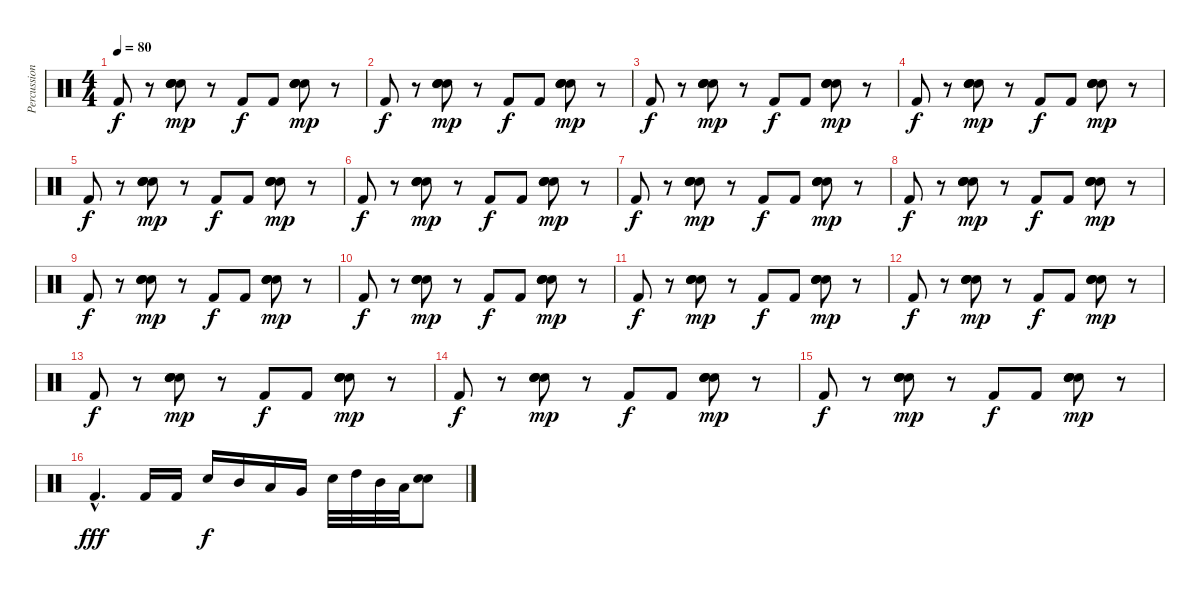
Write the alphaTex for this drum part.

\track ("Percussion" "Percussion") {instrument percussion}
\staff {score}
\articulation defaults
\ts (4 4)
\tempo 80
\clef neutral
\ks c "Kick (hit) 2".8{dy f}
r.8 ("Snare (hit) 2" "Snare (hit) 2" "Snare (hit) 2" "Snare (hit) 2").8{bd 60 dy mp} r.8 "Kick (hit) 2".8{dy f} "Kick (hit) 2".8 ("Snare (hit) 2" "Snare (hit) 2" "Snare (hit) 2" "Snare (hit) 2").8{bd 60 dy mp} r.8 |
"Kick (hit) 2".8{dy f} r.8 ("Snare (hit) 2" "Snare (hit) 2" "Snare (hit) 2" "Snare (hit) 2").8{bd 60 dy mp} r.8 "Kick (hit) 2".8{dy f} "Kick (hit) 2".8 ("Snare (hit) 2" "Snare (hit) 2" "Snare (hit) 2" "Snare (hit) 2").8{bd 60 dy mp} r.8 |
"Kick (hit) 2".8{dy f} r.8 ("Snare (hit) 2" "Snare (hit) 2" "Snare (hit) 2" "Snare (hit) 2").8{bd 60 dy mp} r.8 "Kick (hit) 2".8{dy f} "Kick (hit) 2".8 ("Snare (hit) 2" "Snare (hit) 2" "Snare (hit) 2" "Snare (hit) 2").8{bd 60 dy mp} r.8 |
"Kick (hit) 2".8{dy f} r.8 ("Snare (hit) 2" "Snare (hit) 2" "Snare (hit) 2" "Snare (hit) 2").8{bd 60 dy mp} r.8 "Kick (hit) 2".8{dy f} "Kick (hit) 2".8 ("Snare (hit) 2" "Snare (hit) 2" "Snare (hit) 2" "Snare (hit) 2").8{bd 60 dy mp} r.8 |
"Kick (hit) 2".8{dy f} r.8 ("Snare (hit) 2" "Snare (hit) 2" "Snare (hit) 2" "Snare (hit) 2").8{bd 60 dy mp} r.8 "Kick (hit) 2".8{dy f} "Kick (hit) 2".8 ("Snare (hit) 2" "Snare (hit) 2" "Snare (hit) 2" "Snare (hit) 2").8{bd 60 dy mp} r.8 |
"Kick (hit) 2".8{dy f} r.8 ("Snare (hit) 2" "Snare (hit) 2" "Snare (hit) 2" "Snare (hit) 2").8{bd 60 dy mp} r.8 "Kick (hit) 2".8{dy f} "Kick (hit) 2".8 ("Snare (hit) 2" "Snare (hit) 2" "Snare (hit) 2" "Snare (hit) 2").8{bd 60 dy mp} r.8 |
"Kick (hit) 2".8{dy f} r.8 ("Snare (hit) 2" "Snare (hit) 2" "Snare (hit) 2" "Snare (hit) 2").8{bd 60 dy mp} r.8 "Kick (hit) 2".8{dy f} "Kick (hit) 2".8 ("Snare (hit) 2" "Snare (hit) 2" "Snare (hit) 2" "Snare (hit) 2").8{bd 60 dy mp} r.8 |
"Kick (hit) 2".8{dy f} r.8 ("Snare (hit) 2" "Snare (hit) 2" "Snare (hit) 2" "Snare (hit) 2").8{bd 60 dy mp} r.8 "Kick (hit) 2".8{dy f} "Kick (hit) 2".8 ("Snare (hit) 2" "Snare (hit) 2" "Snare (hit) 2" "Snare (hit) 2").8{bd 60 dy mp} r.8 |
"Kick (hit) 2".8{dy f} r.8 ("Snare (hit) 2" "Snare (hit) 2" "Snare (hit) 2" "Snare (hit) 2").8{bd 60 dy mp} r.8 "Kick (hit) 2".8{dy f} "Kick (hit) 2".8 ("Snare (hit) 2" "Snare (hit) 2" "Snare (hit) 2" "Snare (hit) 2").8{bd 60 dy mp} r.8 |
"Kick (hit) 2".8{dy f} r.8 ("Snare (hit) 2" "Snare (hit) 2" "Snare (hit) 2" "Snare (hit) 2").8{bd 60 dy mp} r.8 "Kick (hit) 2".8{dy f} "Kick (hit) 2".8 ("Snare (hit) 2" "Snare (hit) 2" "Snare (hit) 2" "Snare (hit) 2").8{bd 60 dy mp} r.8 |
"Kick (hit) 2".8{dy f} r.8 ("Snare (hit) 2" "Snare (hit) 2" "Snare (hit) 2" "Snare (hit) 2").8{bd 60 dy mp} r.8 "Kick (hit) 2".8{dy f} "Kick (hit) 2".8 ("Snare (hit) 2" "Snare (hit) 2" "Snare (hit) 2" "Snare (hit) 2").8{bd 60 dy mp} r.8 |
"Kick (hit) 2".8{dy f} r.8 ("Snare (hit) 2" "Snare (hit) 2" "Snare (hit) 2" "Snare (hit) 2").8{bd 60 dy mp} r.8 "Kick (hit) 2".8{dy f} "Kick (hit) 2".8 ("Snare (hit) 2" "Snare (hit) 2" "Snare (hit) 2" "Snare (hit) 2").8{bd 60 dy mp} r.8 |
"Kick (hit) 2".8{dy f} r.8 ("Snare (hit) 2" "Snare (hit) 2" "Snare (hit) 2" "Snare (hit) 2").8{bd 60 dy mp} r.8 "Kick (hit) 2".8{dy f} "Kick (hit) 2".8 ("Snare (hit) 2" "Snare (hit) 2" "Snare (hit) 2" "Snare (hit) 2").8{bd 60 dy mp} r.8 |
"Kick (hit) 2".8{dy f} r.8 ("Snare (hit) 2" "Snare (hit) 2" "Snare (hit) 2" "Snare (hit) 2").8{bd 60 dy mp} r.8 "Kick (hit) 2".8{dy f} "Kick (hit) 2".8 ("Snare (hit) 2" "Snare (hit) 2" "Snare (hit) 2" "Snare (hit) 2").8{bd 60 dy mp} r.8 |
"Kick (hit) 2".8{dy f} r.8 ("Snare (hit) 2" "Snare (hit) 2" "Snare (hit) 2" "Snare (hit) 2").8{bd 60 dy mp} r.8 "Kick (hit) 2".8{dy f} "Kick (hit) 2".8 ("Snare (hit) 2" "Snare (hit) 2" "Snare (hit) 2" "Snare (hit) 2").8{bd 60 dy mp} r.8 |
"Kick (hit) 2"{hac}.4{d dy fff} "Kick (hit) 2".16 "Kick (hit) 2".16 "Snare (hit) 2".16{dy f} "Mid Tom (hit)".16 "Low Tom (hit)".16 "Very Low Tom (hit)".16 "Snare (hit) 2".32 "High Tom (hit)".32 "Mid Tom (hit)".32 "Low Tom (hit)".32 ("Snare (hit) 2" "Snare (hit) 2").8{bd 480}
